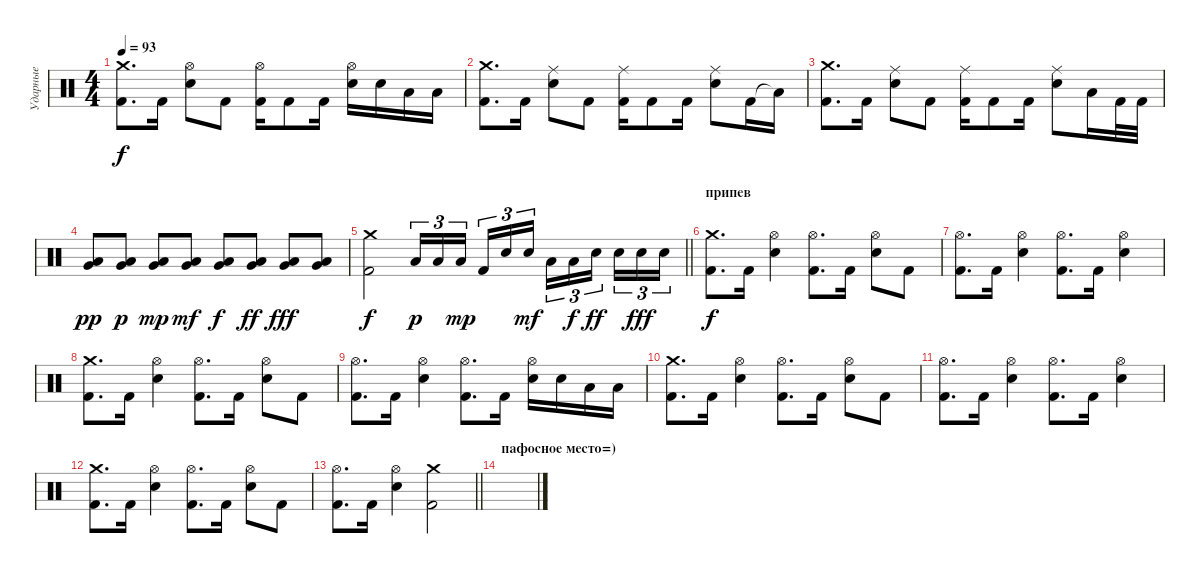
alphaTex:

\track ("Ударные" "Ударные") {instrument percussion}
\staff {score}
\articulation defaults
\ts (4 4)
\tempo 93
\clef neutral
\ks c
("Crash medium (hit)" "Kick (hit) 2").8{d dy f} "Kick (hit) 2".16 ("Hi-Hat (open)" "Snare (hit) 2").8 "Kick (hit) 2".8 ("Hi-Hat (open)" "Kick (hit) 2").16 "Kick (hit) 2".8 "Kick (hit) 2".16 ("Hi-Hat (open)" "Snare (hit) 2").16 "Snare (hit) 2".16 "Low Tom (hit)".16 "Low Tom (hit)".16 |
("Crash medium (hit)" "Kick (hit) 2").8{d} "Kick (hit) 2".16 ("Ride (middle)" "Snare (hit) 2").8 "Kick (hit) 2".8 ("Ride (middle)" "Kick (hit) 2").16 "Kick (hit) 2".8 "Kick (hit) 2".16 ("Ride (middle)" "Snare (hit) 2").8 "Kick (hit) 2".16 "Low Tom (hit)"{t}.16 |
("Crash medium (hit)" "Kick (hit) 2").8{d} "Kick (hit) 2".16 ("Ride (middle)" "Snare (hit) 2").8 "Kick (hit) 2".8 ("Ride (middle)" "Kick (hit) 2").16 "Kick (hit) 2".8 "Kick (hit) 2".16 ("Ride (middle)" "Snare (hit) 2").8 "Low Tom (hit)".16 "Kick (hit) 2".32 "Kick (hit) 2".32 |
("Low Tom (hit)" "Very Low Tom (hit)").8{dy pp} ("Low Tom (hit)" "Very Low Tom (hit)").8{dy p} ("Low Tom (hit)" "Very Low Tom (hit)").8{dy mp} ("Low Tom (hit)" "Very Low Tom (hit)").8{dy mf} ("Low Tom (hit)" "Very Low Tom (hit)").8{dy f} ("Low Tom (hit)" "Very Low Tom (hit)").8{dy ff} ("Low Tom (hit)" "Very Low Tom (hit)").8{dy fff} ("Low Tom (hit)" "Very Low Tom (hit)").8 |
\barLineRight lightlight
("Crash medium (hit)" "Kick (hit) 2").2{dy f} "Low Tom (hit)".16{tu (3 2) dy p} "Low Tom (hit)".16{tu (3 2)} "Low Tom (hit)".16{tu (3 2) dy mp beam splitsecondary} "Kick (hit) 2".16{tu (3 2)} "Snare (hit) 2".16{tu (3 2)} "Snare (hit) 2".16{tu (3 2) dy mf} "Low Tom (hit)".16{tu (3 2)} "Low Tom (hit)".16{tu (3 2) dy f} "Snare (hit) 2".16{tu (3 2) dy ff beam splitsecondary} "Snare (hit) 2".16{tu (3 2)} "Snare (hit) 2".16{tu (3 2) dy fff} "Snare (hit) 2".16{tu (3 2)} |
\section ("" "припев")
("Kick (hit) 2" "Crash medium (hit)").8{d dy f} "Kick (hit) 2".16 ("Hi-Hat (open)" "Snare (hit) 2").4 ("Hi-Hat (open)" "Kick (hit) 2").8{d} "Kick (hit) 2".16 ("Hi-Hat (open)" "Snare (hit) 2").8 "Kick (hit) 2".8 |
("Kick (hit) 2" "Hi-Hat (open)").8{d} "Kick (hit) 2".16 ("Hi-Hat (open)" "Snare (hit) 2").4 ("Hi-Hat (open)" "Kick (hit) 2").8{d} "Kick (hit) 2".16 ("Hi-Hat (open)" "Snare (hit) 2").4 |
("Kick (hit) 2" "Crash medium (hit)").8{d} "Kick (hit) 2".16 ("Hi-Hat (open)" "Snare (hit) 2").4 ("Hi-Hat (open)" "Kick (hit) 2").8{d} "Kick (hit) 2".16 ("Hi-Hat (open)" "Snare (hit) 2").8 "Kick (hit) 2".8 |
("Kick (hit) 2" "Hi-Hat (open)").8{d} "Kick (hit) 2".16 ("Hi-Hat (open)" "Snare (hit) 2").4 ("Hi-Hat (open)" "Kick (hit) 2").8{d} "Kick (hit) 2".16 ("Hi-Hat (open)" "Snare (hit) 2").16 "Snare (hit) 2".16 "Low Tom (hit)".16 "Low Tom (hit)".16 |
("Kick (hit) 2" "Crash medium (hit)").8{d} "Kick (hit) 2".16 ("Hi-Hat (open)" "Snare (hit) 2").4 ("Hi-Hat (open)" "Kick (hit) 2").8{d} "Kick (hit) 2".16 ("Hi-Hat (open)" "Snare (hit) 2").8 "Kick (hit) 2".8 |
("Kick (hit) 2" "Hi-Hat (open)").8{d} "Kick (hit) 2".16 ("Hi-Hat (open)" "Snare (hit) 2").4 ("Hi-Hat (open)" "Kick (hit) 2").8{d} "Kick (hit) 2".16 ("Hi-Hat (open)" "Snare (hit) 2").4 |
("Kick (hit) 2" "Crash medium (hit)").8{d} "Kick (hit) 2".16 ("Hi-Hat (open)" "Snare (hit) 2").4 ("Hi-Hat (open)" "Kick (hit) 2").8{d} "Kick (hit) 2".16 ("Hi-Hat (open)" "Snare (hit) 2").8 "Kick (hit) 2".8 |
\barLineRight lightlight
("Kick (hit) 2" "Hi-Hat (open)").8{d} "Kick (hit) 2".16 ("Hi-Hat (open)" "Snare (hit) 2").4 ("Crash medium (hit)" "Kick (hit) 2").2 |
\section ("" "пафосное место=)")
